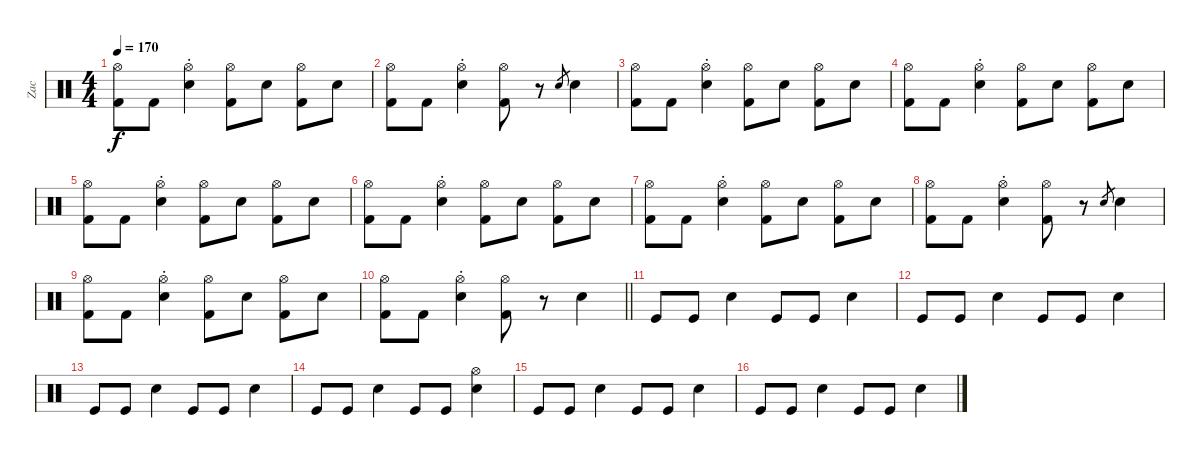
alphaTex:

\track ("Zac" "Zac") {instrument percussion}
\staff {score}
\articulation defaults
\ts (4 4)
\tempo 170
\clef neutral
\ks c
("Hi-Hat (open)" "Kick (hit) 2").8{dy f} "Kick (hit) 2".8 ("Hi-Hat (open)"{st} "Electric Snare (hit)").4 ("Hi-Hat (open)" "Kick (hit) 2").8 "Electric Snare (hit)".8 ("Hi-Hat (open)" "Kick (hit) 2").8 "Electric Snare (hit)".8 |
("Hi-Hat (open)" "Kick (hit) 2").8 "Kick (hit) 2".8 ("Hi-Hat (open)"{st} "Electric Snare (hit)").4 ("Hi-Hat (open)" "Kick (hit) 2").8 r.8 "Electric Snare (hit)".8{gr} "Electric Snare (hit)".4 |
("Hi-Hat (open)" "Kick (hit) 2").8 "Kick (hit) 2".8 ("Hi-Hat (open)"{st} "Electric Snare (hit)").4 ("Hi-Hat (open)" "Kick (hit) 2").8 "Electric Snare (hit)".8 ("Hi-Hat (open)" "Kick (hit) 2").8 "Electric Snare (hit)".8 |
("Hi-Hat (open)" "Kick (hit) 2").8 "Kick (hit) 2".8 ("Hi-Hat (open)"{st} "Electric Snare (hit)").4 ("Hi-Hat (open)" "Kick (hit) 2").8 "Electric Snare (hit)".8 ("Hi-Hat (open)" "Kick (hit) 2").8 "Electric Snare (hit)".8 |
("Hi-Hat (open)" "Kick (hit) 2").8 "Kick (hit) 2".8 ("Hi-Hat (open)"{st} "Electric Snare (hit)").4 ("Hi-Hat (open)" "Kick (hit) 2").8 "Electric Snare (hit)".8 ("Hi-Hat (open)" "Kick (hit) 2").8 "Electric Snare (hit)".8 |
("Hi-Hat (open)" "Kick (hit) 2").8 "Kick (hit) 2".8 ("Hi-Hat (open)"{st} "Electric Snare (hit)").4 ("Hi-Hat (open)" "Kick (hit) 2").8 "Electric Snare (hit)".8 ("Hi-Hat (open)" "Kick (hit) 2").8 "Electric Snare (hit)".8 |
("Hi-Hat (open)" "Kick (hit) 2").8 "Kick (hit) 2".8 ("Hi-Hat (open)"{st} "Electric Snare (hit)").4 ("Hi-Hat (open)" "Kick (hit) 2").8 "Electric Snare (hit)".8 ("Hi-Hat (open)" "Kick (hit) 2").8 "Electric Snare (hit)".8 |
("Hi-Hat (open)" "Kick (hit) 2").8 "Kick (hit) 2".8 ("Hi-Hat (open)"{st} "Electric Snare (hit)").4 ("Hi-Hat (open)" "Kick (hit) 2").8 r.8 "Electric Snare (hit)".8{gr} "Electric Snare (hit)".4 |
("Hi-Hat (open)" "Kick (hit) 2").8 "Kick (hit) 2".8 ("Hi-Hat (open)"{st} "Electric Snare (hit)").4 ("Hi-Hat (open)" "Kick (hit) 2").8 "Electric Snare (hit)".8 ("Hi-Hat (open)" "Kick (hit) 2").8 "Electric Snare (hit)".8 |
\barLineRight lightlight
("Hi-Hat (open)" "Kick (hit) 2").8 "Kick (hit) 2".8 ("Hi-Hat (open)"{st} "Electric Snare (hit)").4 ("Hi-Hat (open)" "Kick (hit) 2").8 r.8 "Electric Snare (hit)".4 |
\section ("" "")
"Kick (hit)".8 "Kick (hit)".8 "Electric Snare (hit)".4 "Kick (hit)".8 "Kick (hit)".8 "Electric Snare (hit)".4 |
"Kick (hit)".8 "Kick (hit)".8 "Electric Snare (hit)".4 "Kick (hit)".8 "Kick (hit)".8 "Electric Snare (hit)".4 |
"Kick (hit)".8 "Kick (hit)".8 "Electric Snare (hit)".4 "Kick (hit)".8 "Kick (hit)".8 "Electric Snare (hit)".4 |
"Kick (hit)".8 "Kick (hit)".8 "Electric Snare (hit)".4 "Kick (hit)".8 "Kick (hit)".8 ("Hi-Hat (open)" "Electric Snare (hit)").4 |
"Kick (hit)".8 "Kick (hit)".8 "Electric Snare (hit)".4 "Kick (hit)".8 "Kick (hit)".8 "Electric Snare (hit)".4 |
"Kick (hit)".8 "Kick (hit)".8 "Electric Snare (hit)".4 "Kick (hit)".8 "Kick (hit)".8 "Electric Snare (hit)".4
